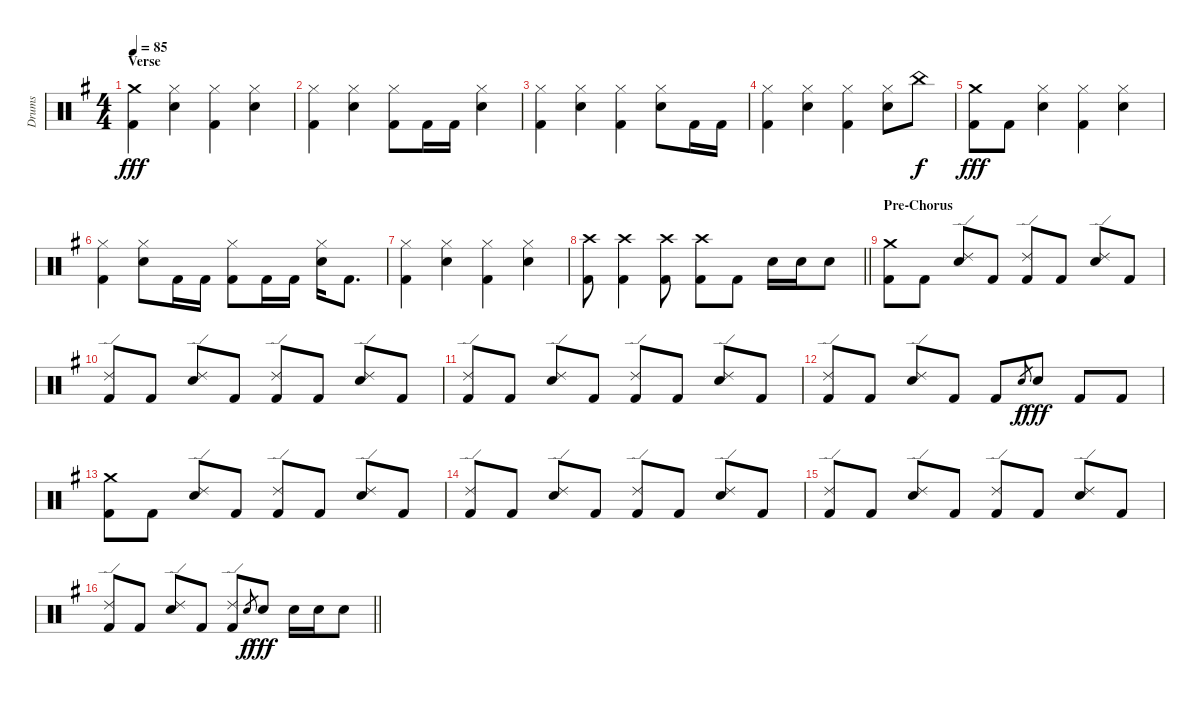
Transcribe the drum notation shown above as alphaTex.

\track ("Drums" "Drums") {instrument percussion}
\staff {score}
\articulation defaults
\ts (4 4)
\section ("" "Verse")
\tempo 85
\clef neutral
\ks g
("Crash medium (hit)" "Kick (hit) 2").4{dy fff} ("Hi-Hat (closed)" "Snare (hit) 2").4 ("Hi-Hat (closed)" "Kick (hit) 2").4 ("Hi-Hat (closed)" "Snare (hit) 2").4 |
("Hi-Hat (closed)" "Kick (hit) 2").4 ("Hi-Hat (closed)" "Snare (hit) 2").4 ("Hi-Hat (closed)" "Kick (hit) 2").8 "Kick (hit) 2".16 "Kick (hit) 2".16 ("Hi-Hat (closed)" "Snare (hit) 2").4 |
("Hi-Hat (closed)" "Kick (hit) 2").4 ("Hi-Hat (closed)" "Snare (hit) 2").4 ("Hi-Hat (closed)" "Kick (hit) 2").4 ("Hi-Hat (closed)" "Snare (hit) 2").8 "Kick (hit) 2".16 "Kick (hit) 2".16 |
("Hi-Hat (closed)" "Kick (hit) 2").4 ("Hi-Hat (closed)" "Snare (hit) 2").4 ("Hi-Hat (closed)" "Kick (hit) 2").4 ("Hi-Hat (closed)" "Snare (hit) 2").8 "China (hit)".8{dy f} |
("Crash medium (hit)" "Kick (hit) 2").8{dy fff} "Kick (hit) 2".8 ("Hi-Hat (closed)" "Snare (hit) 2").4 ("Hi-Hat (closed)" "Kick (hit) 2").4 ("Hi-Hat (closed)" "Snare (hit) 2").4 |
("Hi-Hat (closed)" "Kick (hit) 2").4 ("Hi-Hat (closed)" "Snare (hit) 2").8 "Kick (hit) 2".16 "Kick (hit) 2".16 ("Hi-Hat (closed)" "Kick (hit) 2").8 "Kick (hit) 2".16 "Kick (hit) 2".16 ("Hi-Hat (closed)" "Snare (hit) 2").16 "Kick (hit) 2".8{d} |
("Hi-Hat (closed)" "Kick (hit) 2").4 ("Hi-Hat (closed)" "Snare (hit) 2").4 ("Hi-Hat (closed)" "Kick (hit) 2").4 ("Hi-Hat (closed)" "Snare (hit) 2").4 |
\barLineRight lightlight
("Crash high (hit)" "Kick (hit) 2").8 ("Crash high (hit)" "Kick (hit) 2").4 ("Crash high (hit)" "Kick (hit) 2").8 ("Crash high (hit)" "Kick (hit) 2").8 "Kick (hit) 2".8 "Snare (hit) 2".16 "Snare (hit) 2".16 "Snare (hit) 2".8 |
\section ("" "Pre-Chorus")
("Crash medium (hit)" "Kick (hit) 2").8 "Kick (hit) 2".8 ("Ride (edge) 2" "Snare (hit) 2").8 "Kick (hit) 2".8 ("Ride (edge) 2" "Kick (hit) 2").8 "Kick (hit) 2".8 ("Ride (edge) 2" "Snare (hit) 2").8 "Kick (hit) 2".8 |
("Ride (edge) 2" "Kick (hit) 2").8 "Kick (hit) 2".8 ("Ride (edge) 2" "Snare (hit) 2").8 "Kick (hit) 2".8 ("Ride (edge) 2" "Kick (hit) 2").8 "Kick (hit) 2".8 ("Ride (edge) 2" "Snare (hit) 2").8 "Kick (hit) 2".8 |
("Ride (edge) 2" "Kick (hit) 2").8 "Kick (hit) 2".8 ("Ride (edge) 2" "Snare (hit) 2").8 "Kick (hit) 2".8 ("Ride (edge) 2" "Kick (hit) 2").8 "Kick (hit) 2".8 ("Ride (edge) 2" "Snare (hit) 2").8 "Kick (hit) 2".8 |
("Ride (edge) 2" "Kick (hit) 2").8 "Kick (hit) 2".8 ("Ride (edge) 2" "Snare (hit) 2").8 "Kick (hit) 2".8 "Kick (hit) 2".8 "Snare (hit) 2".8{gr dy f} "Snare (hit) 2".8{dy fff} "Kick (hit) 2".8 "Kick (hit) 2".8 |
("Crash medium (hit)" "Kick (hit) 2").8 "Kick (hit) 2".8 ("Ride (edge) 2" "Snare (hit) 2").8 "Kick (hit) 2".8 ("Ride (edge) 2" "Kick (hit) 2").8 "Kick (hit) 2".8 ("Ride (edge) 2" "Snare (hit) 2").8 "Kick (hit) 2".8 |
("Ride (edge) 2" "Kick (hit) 2").8 "Kick (hit) 2".8 ("Ride (edge) 2" "Snare (hit) 2").8 "Kick (hit) 2".8 ("Ride (edge) 2" "Kick (hit) 2").8 "Kick (hit) 2".8 ("Ride (edge) 2" "Snare (hit) 2").8 "Kick (hit) 2".8 |
("Ride (edge) 2" "Kick (hit) 2").8 "Kick (hit) 2".8 ("Ride (edge) 2" "Snare (hit) 2").8 "Kick (hit) 2".8 ("Ride (edge) 2" "Kick (hit) 2").8 "Kick (hit) 2".8 ("Ride (edge) 2" "Snare (hit) 2").8 "Kick (hit) 2".8 |
\barLineRight lightlight
("Ride (edge) 2" "Kick (hit) 2").8 "Kick (hit) 2".8 ("Ride (edge) 2" "Snare (hit) 2").8 "Kick (hit) 2".8 ("Ride (edge) 2" "Kick (hit) 2").8 "Snare (hit) 2".8{gr dy f} "Snare (hit) 2".8{dy fff} "Snare (hit) 2".16 "Snare (hit) 2".16 "Snare (hit) 2".8
